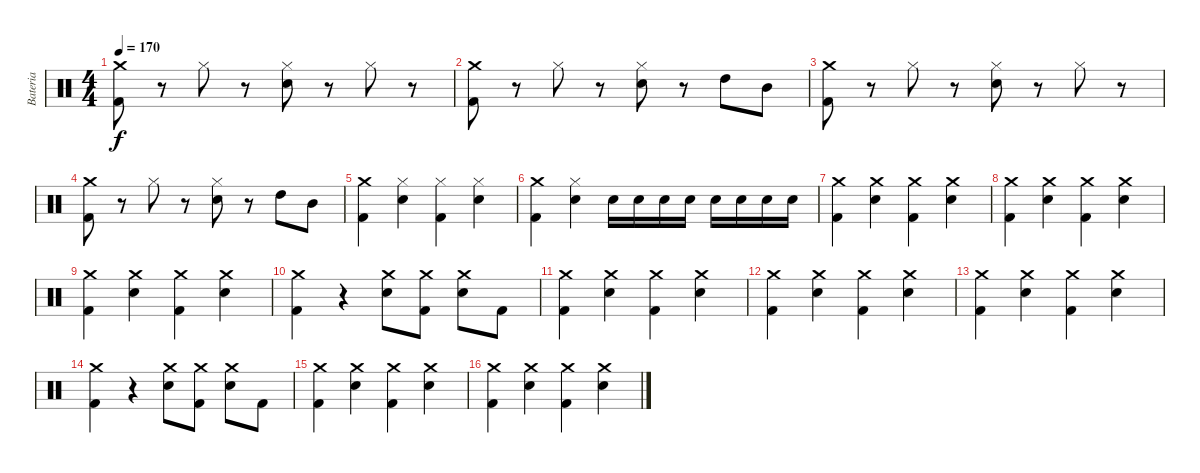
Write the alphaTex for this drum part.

\track ("Bateria" "Bateria") {instrument percussion}
\staff {score}
\articulation defaults
\ts (4 4)
\tempo 170
\clef neutral
\ks c
("Crash medium (hit)" "Kick (hit) 2").8{dy f} r.8 "Hi-Hat (closed)".8 r.8 ("Hi-Hat (closed)" "Electric Snare (hit)").8 r.8 "Hi-Hat (closed)".8 r.8 |
("Crash medium (hit)" "Kick (hit) 2").8 r.8 "Hi-Hat (closed)".8 r.8 ("Hi-Hat (closed)" "Electric Snare (hit)").8 r.8 "High Tom (hit)".8 "Mid Tom (hit)".8 |
("Crash medium (hit)" "Kick (hit) 2").8 r.8 "Hi-Hat (closed)".8 r.8 ("Hi-Hat (closed)" "Electric Snare (hit)").8 r.8 "Hi-Hat (closed)".8 r.8 |
("Crash medium (hit)" "Kick (hit) 2").8 r.8 "Hi-Hat (closed)".8 r.8 ("Hi-Hat (closed)" "Electric Snare (hit)").8 r.8 "High Tom (hit)".8 "Mid Tom (hit)".8 |
("Crash medium (hit)" "Kick (hit) 2").4 ("Hi-Hat (closed)" "Electric Snare (hit)").4 ("Hi-Hat (closed)" "Kick (hit) 2").4 ("Hi-Hat (closed)" "Electric Snare (hit)").4 |
("Crash medium (hit)" "Kick (hit) 2").4 ("Hi-Hat (closed)" "Electric Snare (hit)").4 "Electric Snare (hit)".16 "Electric Snare (hit)".16 "Electric Snare (hit)".16 "Electric Snare (hit)".16 "Electric Snare (hit)".16 "Electric Snare (hit)".16 "Electric Snare (hit)".16 "Electric Snare (hit)".16 |
("Crash medium (hit)" "Kick (hit) 2").4 ("Crash medium (hit)" "Electric Snare (hit)").4 ("Crash medium (hit)" "Kick (hit) 2").4 ("Crash medium (hit)" "Electric Snare (hit)").4 |
("Crash medium (hit)" "Kick (hit) 2").4 ("Crash medium (hit)" "Electric Snare (hit)").4 ("Crash medium (hit)" "Kick (hit) 2").4 ("Crash medium (hit)" "Electric Snare (hit)").4 |
("Crash medium (hit)" "Kick (hit) 2").4 ("Crash medium (hit)" "Electric Snare (hit)").4 ("Crash medium (hit)" "Kick (hit) 2").4 ("Crash medium (hit)" "Electric Snare (hit)").4 |
("Crash medium (hit)" "Kick (hit) 2").4 r.4 ("Crash medium (hit)" "Electric Snare (hit)").8 ("Crash medium (hit)" "Kick (hit) 2").8 ("Crash medium (hit)" "Electric Snare (hit)").8 "Kick (hit) 2".8 |
("Crash medium (hit)" "Kick (hit) 2").4 ("Crash medium (hit)" "Electric Snare (hit)").4 ("Crash medium (hit)" "Kick (hit) 2").4 ("Crash medium (hit)" "Electric Snare (hit)").4 |
("Crash medium (hit)" "Kick (hit) 2").4 ("Crash medium (hit)" "Electric Snare (hit)").4 ("Crash medium (hit)" "Kick (hit) 2").4 ("Crash medium (hit)" "Electric Snare (hit)").4 |
("Crash medium (hit)" "Kick (hit) 2").4 ("Crash medium (hit)" "Electric Snare (hit)").4 ("Crash medium (hit)" "Kick (hit) 2").4 ("Crash medium (hit)" "Electric Snare (hit)").4 |
("Crash medium (hit)" "Kick (hit) 2").4 r.4 ("Crash medium (hit)" "Electric Snare (hit)").8 ("Crash medium (hit)" "Kick (hit) 2").8 ("Crash medium (hit)" "Electric Snare (hit)").8 "Kick (hit) 2".8 |
("Crash medium (hit)" "Kick (hit) 2").4 ("Crash medium (hit)" "Electric Snare (hit)").4 ("Crash medium (hit)" "Kick (hit) 2").4 ("Crash medium (hit)" "Electric Snare (hit)").4 |
("Crash medium (hit)" "Kick (hit) 2").4 ("Crash medium (hit)" "Electric Snare (hit)").4 ("Crash medium (hit)" "Kick (hit) 2").4 ("Crash medium (hit)" "Electric Snare (hit)").4
